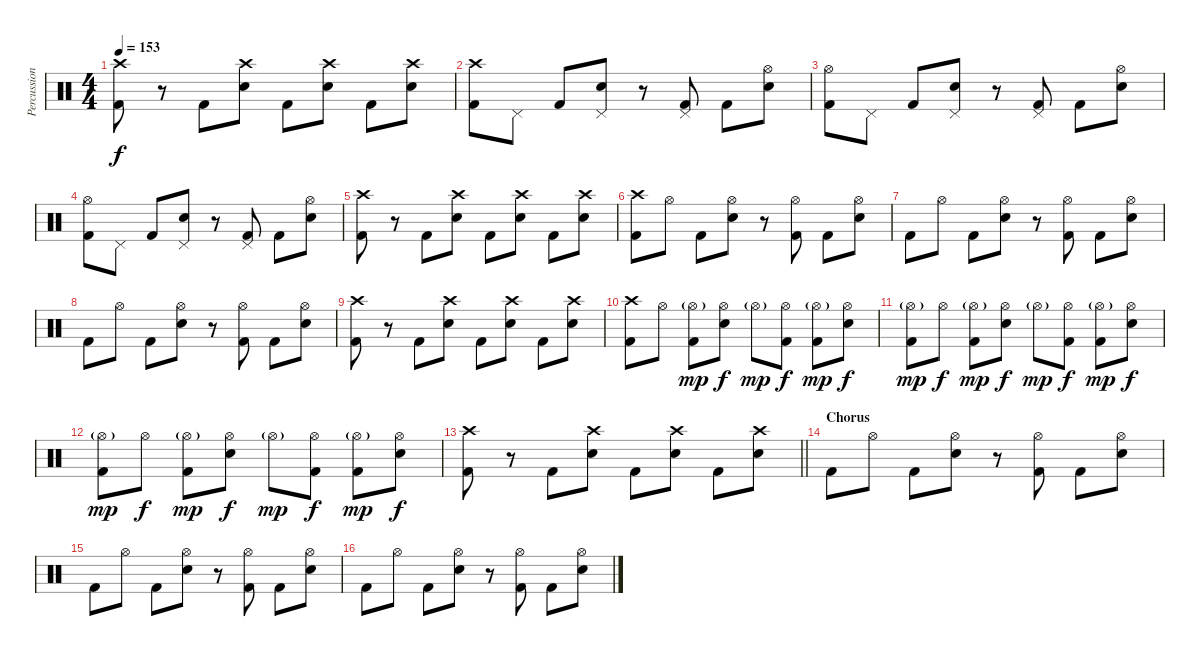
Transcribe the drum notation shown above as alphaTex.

\track ("Percussion" "Percussion") {instrument percussion}
\staff {score}
\articulation defaults
\ts (4 4)
\tempo 153
\clef neutral
\ks c
("Crash high (hit)" "Kick (hit) 2").8{dy f} r.8 "Kick (hit) 2".8 ("Crash high (hit)" "Electric Snare (hit)").8 "Kick (hit) 2".8 ("Crash high (hit)" "Electric Snare (hit)").8 "Kick (hit) 2".8 ("Crash high (hit)" "Electric Snare (hit)").8 |
("Crash high (hit)" "Kick (hit) 2").8 "Pedal Hi-Hat (hit)".8 "Kick (hit) 2".8 ("Pedal Hi-Hat (hit)" "Electric Snare (hit)").8 r.8 ("Pedal Hi-Hat (hit)" "Kick (hit) 2").8 "Kick (hit) 2".8 ("Hi-Hat (open)" "Electric Snare (hit)").8 |
("Hi-Hat (open)" "Kick (hit) 2").8 "Pedal Hi-Hat (hit)".8 "Kick (hit) 2".8 ("Pedal Hi-Hat (hit)" "Electric Snare (hit)").8 r.8 ("Pedal Hi-Hat (hit)" "Kick (hit) 2").8 "Kick (hit) 2".8 ("Hi-Hat (open)" "Electric Snare (hit)").8 |
("Hi-Hat (open)" "Kick (hit) 2").8 "Pedal Hi-Hat (hit)".8 "Kick (hit) 2".8 ("Pedal Hi-Hat (hit)" "Electric Snare (hit)").8 r.8 ("Pedal Hi-Hat (hit)" "Kick (hit) 2").8 "Kick (hit) 2".8 ("Hi-Hat (open)" "Electric Snare (hit)").8 |
("Crash high (hit)" "Kick (hit) 2").8 r.8 "Kick (hit) 2".8 ("Crash high (hit)" "Electric Snare (hit)").8 "Kick (hit) 2".8 ("Crash high (hit)" "Electric Snare (hit)").8 "Kick (hit) 2".8 ("Crash high (hit)" "Electric Snare (hit)").8 |
("Crash high (hit)" "Kick (hit) 2").8 "Hi-Hat (open)".8 "Kick (hit) 2".8 ("Hi-Hat (open)" "Electric Snare (hit)").8 r.8 ("Hi-Hat (open)" "Kick (hit) 2").8 "Kick (hit) 2".8 ("Hi-Hat (open)" "Electric Snare (hit)").8 |
"Kick (hit) 2".8 "Hi-Hat (open)".8 "Kick (hit) 2".8 ("Hi-Hat (open)" "Electric Snare (hit)").8 r.8 ("Hi-Hat (open)" "Kick (hit) 2").8 "Kick (hit) 2".8 ("Hi-Hat (open)" "Electric Snare (hit)").8 |
"Kick (hit) 2".8 "Hi-Hat (open)".8 "Kick (hit) 2".8 ("Hi-Hat (open)" "Electric Snare (hit)").8 r.8 ("Hi-Hat (open)" "Kick (hit) 2").8 "Kick (hit) 2".8 ("Hi-Hat (open)" "Electric Snare (hit)").8 |
("Crash high (hit)" "Kick (hit) 2").8 r.8 "Kick (hit) 2".8 ("Crash high (hit)" "Electric Snare (hit)").8 "Kick (hit) 2".8 ("Crash high (hit)" "Electric Snare (hit)").8 "Kick (hit) 2".8 ("Crash high (hit)" "Electric Snare (hit)").8 |
("Crash high (hit)" "Kick (hit) 2").8 "Hi-Hat (open)".8 ("Hi-Hat (open)"{g} "Kick (hit) 2").8{dy mp} ("Hi-Hat (open)" "Electric Snare (hit)").8{dy f} "Hi-Hat (open)"{g}.8{dy mp} ("Hi-Hat (open)" "Kick (hit) 2").8{dy f} ("Hi-Hat (open)"{g} "Kick (hit) 2").8{dy mp} ("Hi-Hat (open)" "Electric Snare (hit)").8{dy f} |
("Hi-Hat (open)"{g} "Kick (hit) 2").8{dy mp} "Hi-Hat (open)".8{dy f} ("Hi-Hat (open)"{g} "Kick (hit) 2").8{dy mp} ("Hi-Hat (open)" "Electric Snare (hit)").8{dy f} "Hi-Hat (open)"{g}.8{dy mp} ("Hi-Hat (open)" "Kick (hit) 2").8{dy f} ("Hi-Hat (open)"{g} "Kick (hit) 2").8{dy mp} ("Hi-Hat (open)" "Electric Snare (hit)").8{dy f} |
("Hi-Hat (open)"{g} "Kick (hit) 2").8{dy mp} "Hi-Hat (open)".8{dy f} ("Hi-Hat (open)"{g} "Kick (hit) 2").8{dy mp} ("Hi-Hat (open)" "Electric Snare (hit)").8{dy f} "Hi-Hat (open)"{g}.8{dy mp} ("Hi-Hat (open)" "Kick (hit) 2").8{dy f} ("Hi-Hat (open)"{g} "Kick (hit) 2").8{dy mp} ("Hi-Hat (open)" "Electric Snare (hit)").8{dy f} |
\barLineRight lightlight
("Crash high (hit)" "Kick (hit) 2").8 r.8 "Kick (hit) 2".8 ("Crash high (hit)" "Electric Snare (hit)").8 "Kick (hit) 2".8 ("Crash high (hit)" "Electric Snare (hit)").8 "Kick (hit) 2".8 ("Crash high (hit)" "Electric Snare (hit)").8 |
\section ("" "Chorus")
"Kick (hit) 2".8 "Hi-Hat (open)".8 "Kick (hit) 2".8 ("Hi-Hat (open)" "Electric Snare (hit)").8 r.8 ("Hi-Hat (open)" "Kick (hit) 2").8 "Kick (hit) 2".8 ("Hi-Hat (open)" "Electric Snare (hit)").8 |
"Kick (hit) 2".8 "Hi-Hat (open)".8 "Kick (hit) 2".8 ("Hi-Hat (open)" "Electric Snare (hit)").8 r.8 ("Hi-Hat (open)" "Kick (hit) 2").8 "Kick (hit) 2".8 ("Hi-Hat (open)" "Electric Snare (hit)").8 |
"Kick (hit) 2".8 "Hi-Hat (open)".8 "Kick (hit) 2".8 ("Hi-Hat (open)" "Electric Snare (hit)").8 r.8 ("Hi-Hat (open)" "Kick (hit) 2").8 "Kick (hit) 2".8 ("Hi-Hat (open)" "Electric Snare (hit)").8
